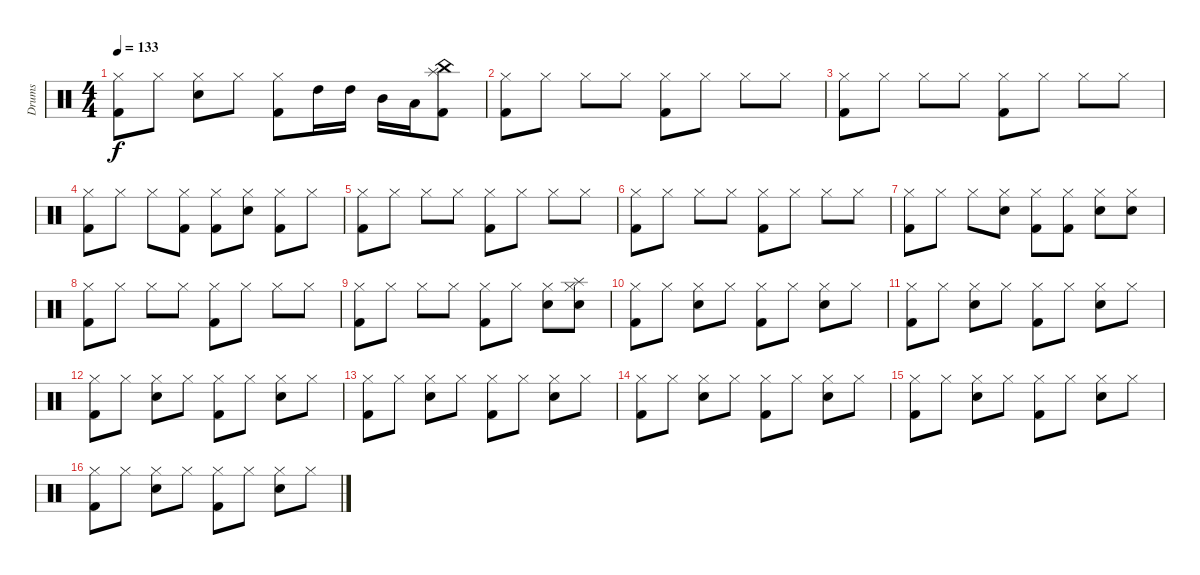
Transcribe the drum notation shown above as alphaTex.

\track ("Drums" "Drums") {instrument percussion}
\staff {score}
\articulation defaults
\ts (4 4)
\tempo 133
\clef neutral
\ks c
("Kick (hit) 2" "Hi-Hat (closed)").8{dy f} "Hi-Hat (closed)".8 ("Snare (hit) 2" "Hi-Hat (closed)").8 "Hi-Hat (closed)".8 ("Kick (hit) 2" "Hi-Hat (closed)").8 "High Tom (hit)".16 "High Tom (hit)".16 "Mid Tom (hit)".16 "Low Tom (hit)".16 ("Kick (hit) 2" "China (hit)" "Splash (hit)").8 |
("Kick (hit) 2" "Hi-Hat (closed)").8 "Hi-Hat (closed)".8 "Hi-Hat (closed)".8 "Hi-Hat (closed)".8 ("Kick (hit) 2" "Hi-Hat (closed)").8 "Hi-Hat (closed)".8 "Hi-Hat (closed)".8 "Hi-Hat (closed)".8 |
("Kick (hit) 2" "Hi-Hat (closed)").8 "Hi-Hat (closed)".8 "Hi-Hat (closed)".8 "Hi-Hat (closed)".8 ("Kick (hit) 2" "Hi-Hat (closed)").8 "Hi-Hat (closed)".8 "Hi-Hat (closed)".8 "Hi-Hat (closed)".8 |
("Kick (hit) 2" "Hi-Hat (closed)").8 "Hi-Hat (closed)".8 "Hi-Hat (closed)".8 ("Kick (hit) 2" "Hi-Hat (closed)").8 ("Kick (hit) 2" "Hi-Hat (closed)").8 ("Snare (hit) 2" "Hi-Hat (closed)").8 ("Kick (hit) 2" "Hi-Hat (closed)").8 "Hi-Hat (closed)".8 |
("Kick (hit) 2" "Hi-Hat (closed)").8 "Hi-Hat (closed)".8 "Hi-Hat (closed)".8 "Hi-Hat (closed)".8 ("Kick (hit) 2" "Hi-Hat (closed)").8 "Hi-Hat (closed)".8 "Hi-Hat (closed)".8 "Hi-Hat (closed)".8 |
("Kick (hit) 2" "Hi-Hat (closed)").8 "Hi-Hat (closed)".8 "Hi-Hat (closed)".8 "Hi-Hat (closed)".8 ("Kick (hit) 2" "Hi-Hat (closed)").8 "Hi-Hat (closed)".8 "Hi-Hat (closed)".8 "Hi-Hat (closed)".8 |
("Kick (hit) 2" "Hi-Hat (closed)").8 "Hi-Hat (closed)".8 "Hi-Hat (closed)".8 ("Snare (hit) 2" "Hi-Hat (closed)").8 ("Kick (hit) 2" "Hi-Hat (closed)").8 ("Kick (hit) 2" "Hi-Hat (closed)").8 ("Snare (hit) 2" "Hi-Hat (closed)").8 ("Snare (hit) 2" "Hi-Hat (closed)").8 |
("Kick (hit) 2" "Hi-Hat (closed)").8 "Hi-Hat (closed)".8 "Hi-Hat (closed)".8 "Hi-Hat (closed)".8 ("Kick (hit) 2" "Hi-Hat (closed)").8 "Hi-Hat (closed)".8 "Hi-Hat (closed)".8 "Hi-Hat (closed)".8 |
("Kick (hit) 2" "Hi-Hat (closed)").8 "Hi-Hat (closed)".8 "Hi-Hat (closed)".8 "Hi-Hat (closed)".8 ("Kick (hit) 2" "Hi-Hat (closed)").8 "Hi-Hat (closed)".8 ("Snare (hit) 2" "Hi-Hat (closed)").8 ("Snare (hit) 2" "Hi-Hat (closed)" "Splash (hit)").8 |
("Kick (hit) 2" "Hi-Hat (closed)").8 "Hi-Hat (closed)".8 ("Snare (hit) 2" "Hi-Hat (closed)").8 "Hi-Hat (closed)".8 ("Kick (hit) 2" "Hi-Hat (closed)").8 "Hi-Hat (closed)".8 ("Snare (hit) 2" "Hi-Hat (closed)").8 "Hi-Hat (closed)".8 |
("Kick (hit) 2" "Hi-Hat (closed)").8 "Hi-Hat (closed)".8 ("Snare (hit) 2" "Hi-Hat (closed)").8 "Hi-Hat (closed)".8 ("Kick (hit) 2" "Hi-Hat (closed)").8 "Hi-Hat (closed)".8 ("Snare (hit) 2" "Hi-Hat (closed)").8 "Hi-Hat (closed)".8 |
("Kick (hit) 2" "Hi-Hat (closed)").8 "Hi-Hat (closed)".8 ("Snare (hit) 2" "Hi-Hat (closed)").8 "Hi-Hat (closed)".8 ("Kick (hit) 2" "Hi-Hat (closed)").8 "Hi-Hat (closed)".8 ("Snare (hit) 2" "Hi-Hat (closed)").8 "Hi-Hat (closed)".8 |
("Kick (hit) 2" "Hi-Hat (closed)").8 "Hi-Hat (closed)".8 ("Snare (hit) 2" "Hi-Hat (closed)").8 "Hi-Hat (closed)".8 ("Kick (hit) 2" "Hi-Hat (closed)").8 "Hi-Hat (closed)".8 ("Snare (hit) 2" "Hi-Hat (closed)").8 "Hi-Hat (closed)".8 |
("Kick (hit) 2" "Hi-Hat (closed)").8 "Hi-Hat (closed)".8 ("Snare (hit) 2" "Hi-Hat (closed)").8 "Hi-Hat (closed)".8 ("Kick (hit) 2" "Hi-Hat (closed)").8 "Hi-Hat (closed)".8 ("Snare (hit) 2" "Hi-Hat (closed)").8 "Hi-Hat (closed)".8 |
("Kick (hit) 2" "Hi-Hat (closed)").8 "Hi-Hat (closed)".8 ("Snare (hit) 2" "Hi-Hat (closed)").8 "Hi-Hat (closed)".8 ("Kick (hit) 2" "Hi-Hat (closed)").8 "Hi-Hat (closed)".8 ("Snare (hit) 2" "Hi-Hat (closed)").8 "Hi-Hat (closed)".8 |
("Kick (hit) 2" "Hi-Hat (closed)").8 "Hi-Hat (closed)".8 ("Snare (hit) 2" "Hi-Hat (closed)").8 "Hi-Hat (closed)".8 ("Kick (hit) 2" "Hi-Hat (closed)").8 "Hi-Hat (closed)".8 ("Snare (hit) 2" "Hi-Hat (closed)").8 "Hi-Hat (closed)".8
